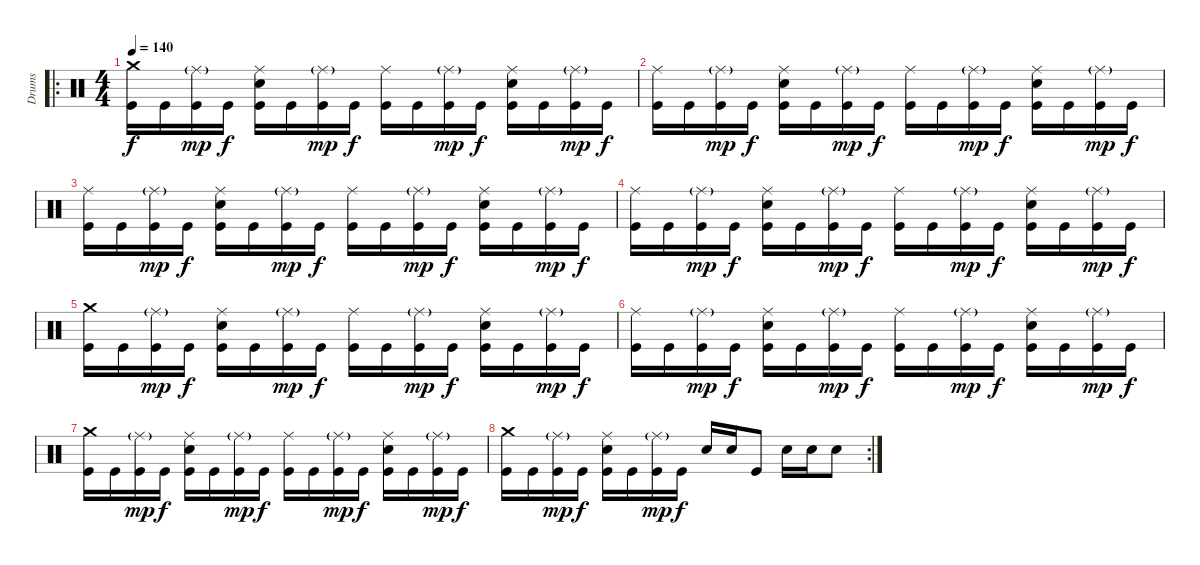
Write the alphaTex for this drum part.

\track ("Drums" "Drums") {instrument percussion}
\staff {score}
\articulation defaults
\ro
\ts (4 4)
\tempo 140
\clef neutral
\ks c
("Crash medium (hit)" "Kick (hit)").16{dy f} "Kick (hit)".16 ("Ride (middle)"{g} "Kick (hit)").16{dy mp} "Kick (hit)".16{dy f} ("Ride (middle)" "Snare (hit) 2" "Kick (hit)").16 "Kick (hit)".16 ("Ride (middle)"{g} "Kick (hit)").16{dy mp} "Kick (hit)".16{dy f} ("Ride (middle)" "Kick (hit)").16 "Kick (hit)".16 ("Ride (middle)"{g} "Kick (hit)").16{dy mp} "Kick (hit)".16{dy f} ("Ride (middle)" "Snare (hit) 2" "Kick (hit)").16 "Kick (hit)".16 ("Ride (middle)"{g} "Kick (hit)").16{dy mp} "Kick (hit)".16{dy f} |
("Ride (middle)" "Kick (hit)").16 "Kick (hit)".16 ("Ride (middle)"{g} "Kick (hit)").16{dy mp} "Kick (hit)".16{dy f} ("Ride (middle)" "Snare (hit) 2" "Kick (hit)").16 "Kick (hit)".16 ("Ride (middle)"{g} "Kick (hit)").16{dy mp} "Kick (hit)".16{dy f} ("Ride (middle)" "Kick (hit)").16 "Kick (hit)".16 ("Ride (middle)"{g} "Kick (hit)").16{dy mp} "Kick (hit)".16{dy f} ("Ride (middle)" "Snare (hit) 2" "Kick (hit)").16 "Kick (hit)".16 ("Ride (middle)"{g} "Kick (hit)").16{dy mp} "Kick (hit)".16{dy f} |
("Ride (middle)" "Kick (hit)").16 "Kick (hit)".16 ("Ride (middle)"{g} "Kick (hit)").16{dy mp} "Kick (hit)".16{dy f} ("Ride (middle)" "Snare (hit) 2" "Kick (hit)").16 "Kick (hit)".16 ("Ride (middle)"{g} "Kick (hit)").16{dy mp} "Kick (hit)".16{dy f} ("Ride (middle)" "Kick (hit)").16 "Kick (hit)".16 ("Ride (middle)"{g} "Kick (hit)").16{dy mp} "Kick (hit)".16{dy f} ("Ride (middle)" "Snare (hit) 2" "Kick (hit)").16 "Kick (hit)".16 ("Ride (middle)"{g} "Kick (hit)").16{dy mp} "Kick (hit)".16{dy f} |
("Ride (middle)" "Kick (hit)").16 "Kick (hit)".16 ("Ride (middle)"{g} "Kick (hit)").16{dy mp} "Kick (hit)".16{dy f} ("Ride (middle)" "Snare (hit) 2" "Kick (hit)").16 "Kick (hit)".16 ("Ride (middle)"{g} "Kick (hit)").16{dy mp} "Kick (hit)".16{dy f} ("Ride (middle)" "Kick (hit)").16 "Kick (hit)".16 ("Ride (middle)"{g} "Kick (hit)").16{dy mp} "Kick (hit)".16{dy f} ("Ride (middle)" "Snare (hit) 2" "Kick (hit)").16 "Kick (hit)".16 ("Ride (middle)"{g} "Kick (hit)").16{dy mp} "Kick (hit)".16{dy f} |
("Crash medium (hit)" "Kick (hit)").16 "Kick (hit)".16 ("Ride (middle)"{g} "Kick (hit)").16{dy mp} "Kick (hit)".16{dy f} ("Ride (middle)" "Snare (hit) 2" "Kick (hit)").16 "Kick (hit)".16 ("Ride (middle)"{g} "Kick (hit)").16{dy mp} "Kick (hit)".16{dy f} ("Ride (middle)" "Kick (hit)").16 "Kick (hit)".16 ("Ride (middle)"{g} "Kick (hit)").16{dy mp} "Kick (hit)".16{dy f} ("Ride (middle)" "Snare (hit) 2" "Kick (hit)").16 "Kick (hit)".16 ("Ride (middle)"{g} "Kick (hit)").16{dy mp} "Kick (hit)".16{dy f} |
("Ride (middle)" "Kick (hit)").16 "Kick (hit)".16 ("Ride (middle)"{g} "Kick (hit)").16{dy mp} "Kick (hit)".16{dy f} ("Ride (middle)" "Snare (hit) 2" "Kick (hit)").16 "Kick (hit)".16 ("Ride (middle)"{g} "Kick (hit)").16{dy mp} "Kick (hit)".16{dy f} ("Ride (middle)" "Kick (hit)").16 "Kick (hit)".16 ("Ride (middle)"{g} "Kick (hit)").16{dy mp} "Kick (hit)".16{dy f} ("Ride (middle)" "Snare (hit) 2" "Kick (hit)").16 "Kick (hit)".16 ("Ride (middle)"{g} "Kick (hit)").16{dy mp} "Kick (hit)".16{dy f} |
("Crash medium (hit)" "Kick (hit)").16 "Kick (hit)".16 ("Ride (middle)"{g} "Kick (hit)").16{dy mp} "Kick (hit)".16{dy f} ("Ride (middle)" "Snare (hit) 2" "Kick (hit)").16 "Kick (hit)".16 ("Ride (middle)"{g} "Kick (hit)").16{dy mp} "Kick (hit)".16{dy f} ("Ride (middle)" "Kick (hit)").16 "Kick (hit)".16 ("Ride (middle)"{g} "Kick (hit)").16{dy mp} "Kick (hit)".16{dy f} ("Ride (middle)" "Snare (hit) 2" "Kick (hit)").16 "Kick (hit)".16 ("Ride (middle)"{g} "Kick (hit)").16{dy mp} "Kick (hit)".16{dy f} |
\rc 2
("Crash medium (hit)" "Kick (hit)").16 "Kick (hit)".16 ("Ride (middle)"{g} "Kick (hit)").16{dy mp} "Kick (hit)".16{dy f} ("Ride (middle)" "Snare (hit) 2" "Kick (hit)").16 "Kick (hit)".16 ("Ride (middle)"{g} "Kick (hit)").16{dy mp} "Kick (hit)".16{dy f} "Snare (hit) 2".16 "Snare (hit) 2".16 "Kick (hit)".8 "Snare (hit) 2".16 "Snare (hit) 2".16 "Snare (hit) 2".8
